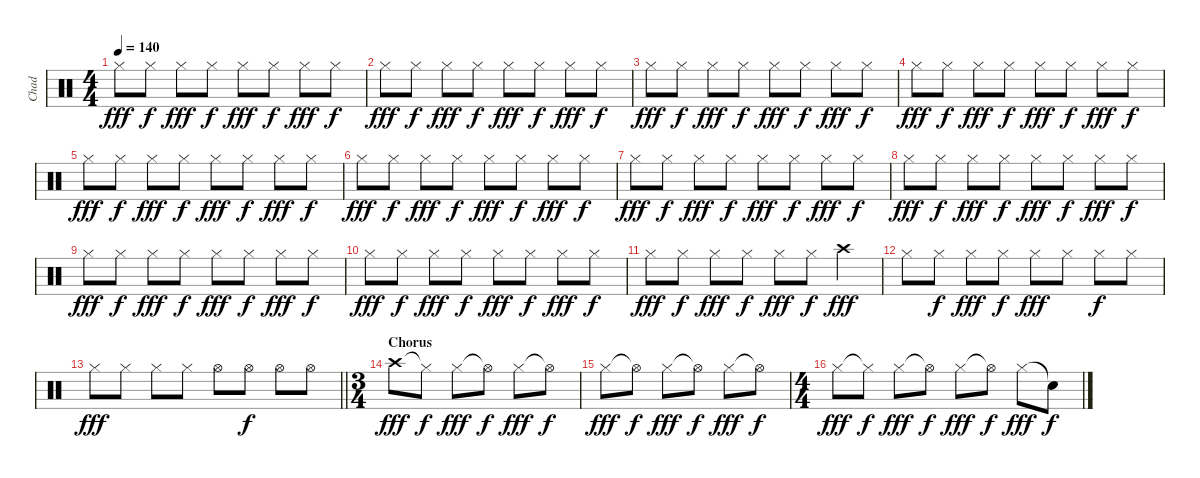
\track ("Chad" "Chad") {instrument percussion}
\staff {score}
\articulation defaults
\ts (4 4)
\tempo 140
\clef neutral
\ks c "Hi-Hat (closed)".8{dy fff} "Hi-Hat (closed)".8{dy f} "Hi-Hat (closed)".8{dy fff} "Hi-Hat (closed)".8{dy f} "Hi-Hat (closed)".8{dy fff} "Hi-Hat (closed)".8{dy f} "Hi-Hat (closed)".8{dy fff} "Hi-Hat (closed)".8{dy f}
|
"Hi-Hat (closed)".8{dy fff} "Hi-Hat (closed)".8{dy f} "Hi-Hat (closed)".8{dy fff} "Hi-Hat (closed)".8{dy f} "Hi-Hat (closed)".8{dy fff} "Hi-Hat (closed)".8{dy f} "Hi-Hat (closed)".8{dy fff} "Hi-Hat (closed)".8{dy f} |
"Hi-Hat (closed)".8{dy fff} "Hi-Hat (closed)".8{dy f} "Hi-Hat (closed)".8{dy fff} "Hi-Hat (closed)".8{dy f} "Hi-Hat (closed)".8{dy fff} "Hi-Hat (closed)".8{dy f} "Hi-Hat (closed)".8{dy fff} "Hi-Hat (closed)".8{dy f} |
"Hi-Hat (closed)".8{dy fff} "Hi-Hat (closed)".8{dy f} "Hi-Hat (closed)".8{dy fff} "Hi-Hat (closed)".8{dy f} "Hi-Hat (closed)".8{dy fff} "Hi-Hat (closed)".8{dy f} "Hi-Hat (closed)".8{dy fff} "Hi-Hat (closed)".8{dy f} |
"Hi-Hat (closed)".8{dy fff} "Hi-Hat (closed)".8{dy f} "Hi-Hat (closed)".8{dy fff} "Hi-Hat (closed)".8{dy f} "Hi-Hat (closed)".8{dy fff} "Hi-Hat (closed)".8{dy f} "Hi-Hat (closed)".8{dy fff} "Hi-Hat (closed)".8{dy f} |
"Hi-Hat (closed)".8{dy fff} "Hi-Hat (closed)".8{dy f} "Hi-Hat (closed)".8{dy fff} "Hi-Hat (closed)".8{dy f} "Hi-Hat (closed)".8{dy fff} "Hi-Hat (closed)".8{dy f} "Hi-Hat (closed)".8{dy fff} "Hi-Hat (closed)".8{dy f} |
"Hi-Hat (closed)".8{dy fff} "Hi-Hat (closed)".8{dy f} "Hi-Hat (closed)".8{dy fff} "Hi-Hat (closed)".8{dy f} "Hi-Hat (closed)".8{dy fff} "Hi-Hat (closed)".8{dy f} "Hi-Hat (closed)".8{dy fff} "Hi-Hat (closed)".8{dy f} |
"Hi-Hat (closed)".8{dy fff} "Hi-Hat (closed)".8{dy f} "Hi-Hat (closed)".8{dy fff} "Hi-Hat (closed)".8{dy f} "Hi-Hat (closed)".8{dy fff} "Hi-Hat (closed)".8{dy f} "Hi-Hat (closed)".8{dy fff} "Hi-Hat (closed)".8{dy f} |
"Hi-Hat (closed)".8{dy fff} "Hi-Hat (closed)".8{dy f} "Hi-Hat (closed)".8{dy fff} "Hi-Hat (closed)".8{dy f} "Hi-Hat (closed)".8{dy fff} "Hi-Hat (closed)".8{dy f} "Hi-Hat (closed)".8{dy fff} "Hi-Hat (closed)".8{dy f} |
"Hi-Hat (closed)".8{dy fff} "Hi-Hat (closed)".8{dy f} "Hi-Hat (closed)".8{dy fff} "Hi-Hat (closed)".8{dy f} "Hi-Hat (closed)".8{dy fff} "Hi-Hat (closed)".8{dy f} "Hi-Hat (closed)".8{dy fff} "Hi-Hat (closed)".8{dy f} |
"Hi-Hat (closed)".8{dy fff} "Hi-Hat (closed)".8{dy f} "Hi-Hat (closed)".8{dy fff} "Hi-Hat (closed)".8{dy f} "Hi-Hat (closed)".8{dy fff} "Hi-Hat (closed)".8{dy f} "Crash high (hit)".4{dy fff} |
"Hi-Hat (closed)".8 "Hi-Hat (closed)".8{dy f} "Hi-Hat (closed)".8{dy fff} "Hi-Hat (closed)".8{dy f} "Hi-Hat (closed)".8{dy fff} "Hi-Hat (closed)".8 "Hi-Hat (closed)".8{dy f} "Hi-Hat (closed)".8 |
\barLineRight lightlight "Hi-Hat (closed)".8{dy fff} "Hi-Hat (closed)".8 "Hi-Hat (closed)".8 "Hi-Hat (closed)".8 "Hi-Hat (open)".8 "Hi-Hat (open)".8{dy f} "Hi-Hat (open)".8 "Hi-Hat (open)".8
|
\ts (3 4)
\section ("" "Chorus")
"Crash high (hit)".8{dy fff} "Hi-Hat (closed)"{t}.8{dy f} "Hi-Hat (closed)".8{dy fff} "Hi-Hat (open)"{t}.8{dy f} "Hi-Hat (closed)".8{dy fff} "Hi-Hat (open)"{t}.8{dy f} |
"Hi-Hat (closed)".8{dy fff} "Hi-Hat (open)"{t}.8{dy f} "Hi-Hat (closed)".8{dy fff} "Hi-Hat (open)"{t}.8{dy f} "Hi-Hat (closed)".8{dy fff} "Hi-Hat (open)"{t}.8{dy f} |
\ts (4 4)
"Hi-Hat (closed)".8{dy fff} "Hi-Hat (closed)"{t}.8{dy f} "Hi-Hat (closed)".8{dy fff} "Hi-Hat (open)"{t}.8{dy f} "Hi-Hat (closed)".8{dy fff} "Hi-Hat (open)"{t}.8{dy f} "Hi-Hat (closed)".8{dy fff} "Snare (hit)"{t}.8{dy f}
